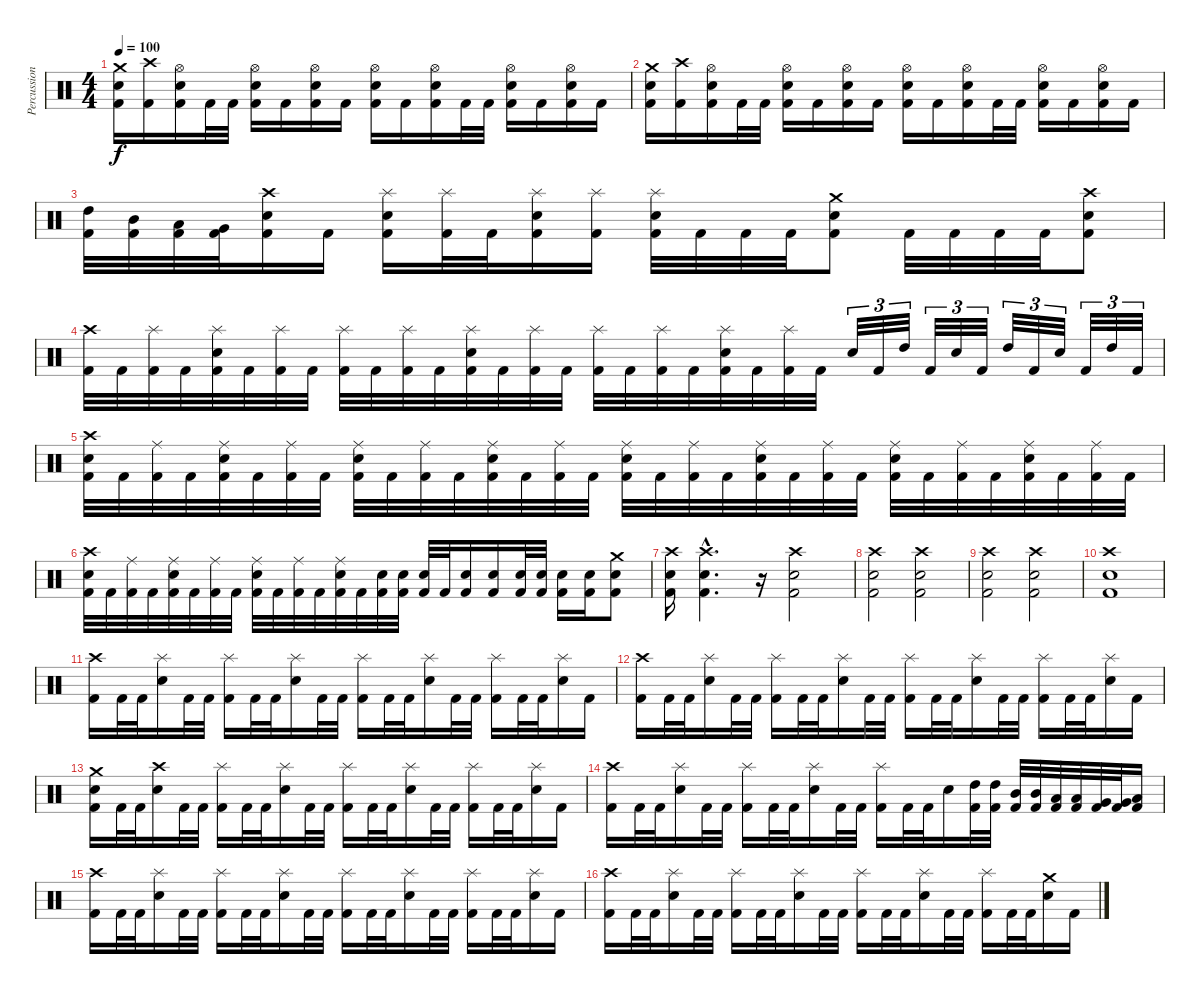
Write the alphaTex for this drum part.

\track ("Percussion" "Percussion") {instrument percussion}
\staff {score}
\articulation defaults
\ts (4 4)
\tempo 100
\clef neutral
\ks c
("Crash medium (hit)" "Electric Snare (hit)" "Kick (hit) 2").16{dy f} ("Crash high (hit)" "Kick (hit) 2").16 ("Hi-Hat (open)" "Electric Snare (hit)" "Kick (hit) 2").16 "Kick (hit) 2".32 "Kick (hit) 2".32 ("Hi-Hat (open)" "Electric Snare (hit)" "Kick (hit) 2").16 "Kick (hit) 2".16 ("Hi-Hat (open)" "Electric Snare (hit)" "Kick (hit) 2").16 "Kick (hit) 2".16 ("Hi-Hat (open)" "Electric Snare (hit)" "Kick (hit) 2").16 "Kick (hit) 2".16 ("Hi-Hat (open)" "Electric Snare (hit)" "Kick (hit) 2").16 "Kick (hit) 2".32 "Kick (hit) 2".32 ("Hi-Hat (open)" "Electric Snare (hit)" "Kick (hit) 2").16 "Kick (hit) 2".16 ("Hi-Hat (open)" "Electric Snare (hit)" "Kick (hit) 2").16 "Kick (hit) 2".16 |
("Crash medium (hit)" "Electric Snare (hit)" "Kick (hit) 2").16 ("Crash high (hit)" "Kick (hit) 2").16 ("Hi-Hat (open)" "Electric Snare (hit)" "Kick (hit) 2").16 "Kick (hit) 2".32 "Kick (hit) 2".32 ("Hi-Hat (open)" "Electric Snare (hit)" "Kick (hit) 2").16 "Kick (hit) 2".16 ("Hi-Hat (open)" "Electric Snare (hit)" "Kick (hit) 2").16 "Kick (hit) 2".16 ("Hi-Hat (open)" "Electric Snare (hit)" "Kick (hit) 2").16 "Kick (hit) 2".16 ("Hi-Hat (open)" "Electric Snare (hit)" "Kick (hit) 2").16 "Kick (hit) 2".32 "Kick (hit) 2".32 ("Hi-Hat (open)" "Electric Snare (hit)" "Kick (hit) 2").16 "Kick (hit) 2".16 ("Hi-Hat (open)" "Electric Snare (hit)" "Kick (hit) 2").16 "Kick (hit) 2".16 |
("High Tom (hit)" "Kick (hit) 2").32 ("Mid Tom (hit)" "Kick (hit) 2").32 ("Low Tom (hit)" "Kick (hit) 2").32 ("Very Low Tom (hit)" "Kick (hit) 2").32 ("Electric Snare (hit)" "Crash high (hit)" "Kick (hit) 2").16 "Kick (hit) 2".16 ("Splash (hit)" "Electric Snare (hit)" "Kick (hit) 2").16 ("Splash (hit)" "Kick (hit) 2").32 "Kick (hit) 2".32 ("Splash (hit)" "Electric Snare (hit)" "Kick (hit) 2").16 ("Splash (hit)" "Kick (hit) 2").16 ("Splash (hit)" "Electric Snare (hit)" "Kick (hit) 2").32 "Kick (hit) 2".32 "Kick (hit) 2".32 "Kick (hit) 2".32 ("Crash medium (hit)" "Electric Snare (hit)" "Kick (hit) 2").8 "Kick (hit) 2".32 "Kick (hit) 2".32 "Kick (hit) 2".32 "Kick (hit) 2".32 ("Crash high (hit)" "Electric Snare (hit)" "Kick (hit) 2").8 |
("Crash high (hit)" "Kick (hit) 2").32 "Kick (hit) 2".32 ("Splash (hit)" "Kick (hit) 2").32 "Kick (hit) 2".32 ("Splash (hit)" "Electric Snare (hit)" "Kick (hit) 2").32 "Kick (hit) 2".32 ("Splash (hit)" "Kick (hit) 2").32 "Kick (hit) 2".32 ("Splash (hit)" "Kick (hit) 2").32 "Kick (hit) 2".32 ("Splash (hit)" "Kick (hit) 2").32 "Kick (hit) 2".32 ("Splash (hit)" "Electric Snare (hit)" "Kick (hit) 2").32 "Kick (hit) 2".32 ("Splash (hit)" "Kick (hit) 2").32 "Kick (hit) 2".32 ("Splash (hit)" "Kick (hit) 2").32 "Kick (hit) 2".32 ("Splash (hit)" "Kick (hit) 2").32 "Kick (hit) 2".32 ("Splash (hit)" "Electric Snare (hit)" "Kick (hit) 2").32 "Kick (hit) 2".32 ("Splash (hit)" "Kick (hit) 2").32 "Kick (hit) 2".32 "Electric Snare (hit)".32{tu (3 2)} "Kick (hit) 2".32{tu (3 2)} "High Tom (hit)".32{tu (3 2)} "Kick (hit) 2".32{tu (3 2)} "Electric Snare (hit)".32{tu (3 2)} "Kick (hit) 2".32{tu (3 2)} "High Tom (hit)".32{tu (3 2)} "Kick (hit) 2".32{tu (3 2)} "Electric Snare (hit)".32{tu (3 2)} "Kick (hit) 2".32{tu (3 2)} "High Tom (hit)".32{tu (3 2)} "Kick (hit) 2".32{tu (3 2)} |
("Crash high (hit)" "Electric Snare (hit)" "Kick (hit) 2").32 "Kick (hit) 2".32 ("Ride (middle)" "Kick (hit) 2").32 "Kick (hit) 2".32 ("Ride (middle)" "Electric Snare (hit)" "Kick (hit) 2").32 "Kick (hit) 2".32 ("Ride (middle)" "Kick (hit) 2").32 "Kick (hit) 2".32 ("Ride (middle)" "Electric Snare (hit)" "Kick (hit) 2").32 "Kick (hit) 2".32 ("Ride (middle)" "Kick (hit) 2").32 "Kick (hit) 2".32 ("Ride (middle)" "Electric Snare (hit)" "Kick (hit) 2").32 "Kick (hit) 2".32 ("Ride (middle)" "Kick (hit) 2").32 "Kick (hit) 2".32 ("Ride (middle)" "Electric Snare (hit)" "Kick (hit) 2").32 "Kick (hit) 2".32 ("Ride (middle)" "Kick (hit) 2").32 "Kick (hit) 2".32 ("Ride (middle)" "Electric Snare (hit)" "Kick (hit) 2").32 "Kick (hit) 2".32 ("Ride (middle)" "Kick (hit) 2").32 "Kick (hit) 2".32 ("Ride (middle)" "Electric Snare (hit)" "Kick (hit) 2").32 "Kick (hit) 2".32 ("Ride (middle)" "Kick (hit) 2").32 "Kick (hit) 2".32 ("Ride (middle)" "Electric Snare (hit)" "Kick (hit) 2").32 "Kick (hit) 2".32 ("Ride (middle)" "Kick (hit) 2").32 "Kick (hit) 2".32 |
("Crash high (hit)" "Electric Snare (hit)" "Kick (hit) 2").32 "Kick (hit) 2".32 ("Ride (middle)" "Kick (hit) 2").32 "Kick (hit) 2".32 ("Ride (middle)" "Electric Snare (hit)" "Kick (hit) 2").32 "Kick (hit) 2".32 ("Ride (middle)" "Kick (hit) 2").32 "Kick (hit) 2".32 ("Ride (middle)" "Electric Snare (hit)" "Kick (hit) 2").32 "Kick (hit) 2".32 ("Ride (middle)" "Kick (hit) 2").32 "Kick (hit) 2".32 ("Ride (middle)" "Electric Snare (hit)" "Kick (hit) 2").32 "Kick (hit) 2".32 ("Electric Snare (hit)" "Kick (hit) 2").32 ("Electric Snare (hit)" "Kick (hit) 2").32 ("Electric Snare (hit)" "Kick (hit) 2").32 "Kick (hit) 2".32 ("Electric Snare (hit)" "Kick (hit) 2").16 ("Electric Snare (hit)" "Kick (hit) 2").16 ("Electric Snare (hit)" "Kick (hit) 2").32 ("Electric Snare (hit)" "Kick (hit) 2").32 ("Electric Snare (hit)" "Kick (hit) 2").16 ("Electric Snare (hit)" "Kick (hit) 2").16 ("Crash medium (hit)" "Electric Snare (hit)" "Kick (hit) 2").8 |
("Crash high (hit)" "Kick (hit) 2" "Electric Snare (hit)").16 ("Crash high (hit)"{hac} "Kick (hit) 2"{hac} "Electric Snare (hit)"{hac}).4{d} r.16 ("Crash high (hit)" "Kick (hit) 2" "Electric Snare (hit)").2 |
("Crash high (hit)" "Kick (hit) 2" "Electric Snare (hit)").2 ("Crash high (hit)" "Kick (hit) 2" "Electric Snare (hit)").2 |
("Crash high (hit)" "Kick (hit) 2" "Electric Snare (hit)").2 ("Crash high (hit)" "Kick (hit) 2" "Electric Snare (hit)").2 |
("Crash high (hit)" "Kick (hit) 2" "Electric Snare (hit)").1 |
("Crash high (hit)" "Kick (hit) 2").16 "Kick (hit) 2".32 "Kick (hit) 2".32 ("Splash (hit)" "Electric Snare (hit)").16 "Kick (hit) 2".32 "Kick (hit) 2".32 ("Splash (hit)" "Kick (hit) 2").16 "Kick (hit) 2".32 "Kick (hit) 2".32 ("Splash (hit)" "Electric Snare (hit)").16 "Kick (hit) 2".32 "Kick (hit) 2".32 ("Splash (hit)" "Kick (hit) 2").16 "Kick (hit) 2".32 "Kick (hit) 2".32 ("Splash (hit)" "Electric Snare (hit)").16 "Kick (hit) 2".32 "Kick (hit) 2".32 ("Splash (hit)" "Kick (hit) 2").16 "Kick (hit) 2".32 "Kick (hit) 2".32 ("Splash (hit)" "Electric Snare (hit)").16 "Kick (hit) 2".16 |
("Crash high (hit)" "Kick (hit) 2").16 "Kick (hit) 2".32 "Kick (hit) 2".32 ("Splash (hit)" "Electric Snare (hit)").16 "Kick (hit) 2".32 "Kick (hit) 2".32 ("Splash (hit)" "Kick (hit) 2").16 "Kick (hit) 2".32 "Kick (hit) 2".32 ("Splash (hit)" "Electric Snare (hit)").16 "Kick (hit) 2".32 "Kick (hit) 2".32 ("Splash (hit)" "Kick (hit) 2").16 "Kick (hit) 2".32 "Kick (hit) 2".32 ("Splash (hit)" "Electric Snare (hit)").16 "Kick (hit) 2".32 "Kick (hit) 2".32 ("Splash (hit)" "Kick (hit) 2").16 "Kick (hit) 2".32 "Kick (hit) 2".32 ("Splash (hit)" "Electric Snare (hit)").16 "Kick (hit) 2".16 |
("Crash medium (hit)" "Electric Snare (hit)" "Kick (hit) 2").16 "Kick (hit) 2".32 "Kick (hit) 2".32 ("Crash high (hit)" "Electric Snare (hit)").16 "Kick (hit) 2".32 "Kick (hit) 2".32 ("Splash (hit)" "Kick (hit) 2").16 "Kick (hit) 2".32 "Kick (hit) 2".32 ("Splash (hit)" "Electric Snare (hit)").16 "Kick (hit) 2".32 "Kick (hit) 2".32 ("Splash (hit)" "Kick (hit) 2").16 "Kick (hit) 2".32 "Kick (hit) 2".32 ("Splash (hit)" "Electric Snare (hit)").16 "Kick (hit) 2".32 "Kick (hit) 2".32 ("Splash (hit)" "Kick (hit) 2").16 "Kick (hit) 2".32 "Kick (hit) 2".32 ("Splash (hit)" "Electric Snare (hit)").16 "Kick (hit) 2".16 |
("Crash high (hit)" "Kick (hit) 2").16 "Kick (hit) 2".32 "Kick (hit) 2".32 ("Splash (hit)" "Electric Snare (hit)").16 "Kick (hit) 2".32 "Kick (hit) 2".32 ("Splash (hit)" "Kick (hit) 2").16 "Kick (hit) 2".32 "Kick (hit) 2".32 ("Splash (hit)" "Electric Snare (hit)").16 "Kick (hit) 2".32 "Kick (hit) 2".32 ("Splash (hit)" "Kick (hit) 2").16 "Kick (hit) 2".32 "Kick (hit) 2".32 "Electric Snare (hit)".16 ("High Tom (hit)" "Kick (hit) 2").32 ("High Tom (hit)" "Kick (hit) 2").32 ("Mid Tom (hit)" "Kick (hit) 2").32 ("Mid Tom (hit)" "Kick (hit) 2").32 ("Low Tom (hit)" "Kick (hit) 2").32 ("Low Tom (hit)" "Kick (hit) 2").32 ("Very Low Tom (hit)" "Kick (hit) 2").32 ("Very Low Tom (hit)" "Kick (hit) 2").32 ("Low Floor Tom (hit)" "Kick (hit) 2").16 |
("Crash high (hit)" "Kick (hit) 2").16 "Kick (hit) 2".32 "Kick (hit) 2".32 ("Splash (hit)" "Electric Snare (hit)").16 "Kick (hit) 2".32 "Kick (hit) 2".32 ("Splash (hit)" "Kick (hit) 2").16 "Kick (hit) 2".32 "Kick (hit) 2".32 ("Splash (hit)" "Electric Snare (hit)").16 "Kick (hit) 2".32 "Kick (hit) 2".32 ("Splash (hit)" "Kick (hit) 2").16 "Kick (hit) 2".32 "Kick (hit) 2".32 ("Splash (hit)" "Electric Snare (hit)").16 "Kick (hit) 2".32 "Kick (hit) 2".32 ("Splash (hit)" "Kick (hit) 2").16 "Kick (hit) 2".32 "Kick (hit) 2".32 ("Splash (hit)" "Electric Snare (hit)").16 "Kick (hit) 2".16 |
("Crash high (hit)" "Kick (hit) 2").16 "Kick (hit) 2".32 "Kick (hit) 2".32 ("Splash (hit)" "Electric Snare (hit)").16 "Kick (hit) 2".32 "Kick (hit) 2".32 ("Splash (hit)" "Kick (hit) 2").16 "Kick (hit) 2".32 "Kick (hit) 2".32 ("Splash (hit)" "Electric Snare (hit)").16 "Kick (hit) 2".32 "Kick (hit) 2".32 ("Splash (hit)" "Kick (hit) 2").16 "Kick (hit) 2".32 "Kick (hit) 2".32 ("Splash (hit)" "Electric Snare (hit)").16 "Kick (hit) 2".32 "Kick (hit) 2".32 ("Splash (hit)" "Kick (hit) 2").16 "Kick (hit) 2".32 "Kick (hit) 2".32 ("Crash medium (hit)" "Electric Snare (hit)").16 "Kick (hit) 2".16
